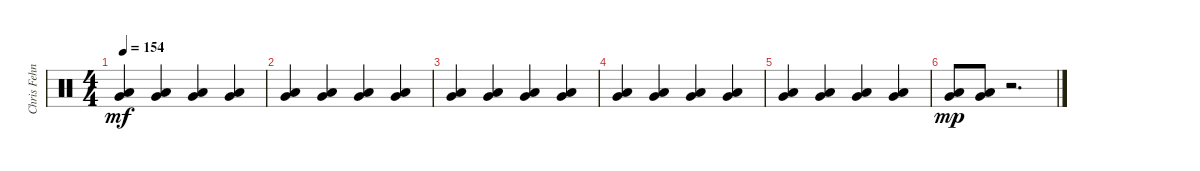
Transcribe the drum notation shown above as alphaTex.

\track ("Chris Fehn" "Chris Fehn") {instrument percussion}
\staff {score}
\articulation defaults
\ts (4 4)
\tempo 154
\clef neutral
\ks c
("Very Low Tom (hit)" "Low Floor Tom (hit)").4{dy mf} ("Very Low Tom (hit)" "Low Floor Tom (hit)").4 ("Very Low Tom (hit)" "Low Floor Tom (hit)").4 ("Very Low Tom (hit)" "Low Floor Tom (hit)").4 |
("Very Low Tom (hit)" "Low Floor Tom (hit)").4 ("Very Low Tom (hit)" "Low Floor Tom (hit)").4 ("Very Low Tom (hit)" "Low Floor Tom (hit)").4 ("Very Low Tom (hit)" "Low Floor Tom (hit)").4 |
("Very Low Tom (hit)" "Low Floor Tom (hit)").4 ("Very Low Tom (hit)" "Low Floor Tom (hit)").4 ("Very Low Tom (hit)" "Low Floor Tom (hit)").4 ("Very Low Tom (hit)" "Low Floor Tom (hit)").4 |
("Very Low Tom (hit)" "Low Floor Tom (hit)").4 ("Very Low Tom (hit)" "Low Floor Tom (hit)").4 ("Very Low Tom (hit)" "Low Floor Tom (hit)").4 ("Very Low Tom (hit)" "Low Floor Tom (hit)").4 |
("Very Low Tom (hit)" "Low Floor Tom (hit)").4 ("Very Low Tom (hit)" "Low Floor Tom (hit)").4 ("Very Low Tom (hit)" "Low Floor Tom (hit)").4 ("Very Low Tom (hit)" "Low Floor Tom (hit)").4 |
("Very Low Tom (hit)" "Low Floor Tom (hit)").8{dy mp} ("Very Low Tom (hit)" "Low Floor Tom (hit)").8 r.2{d}
